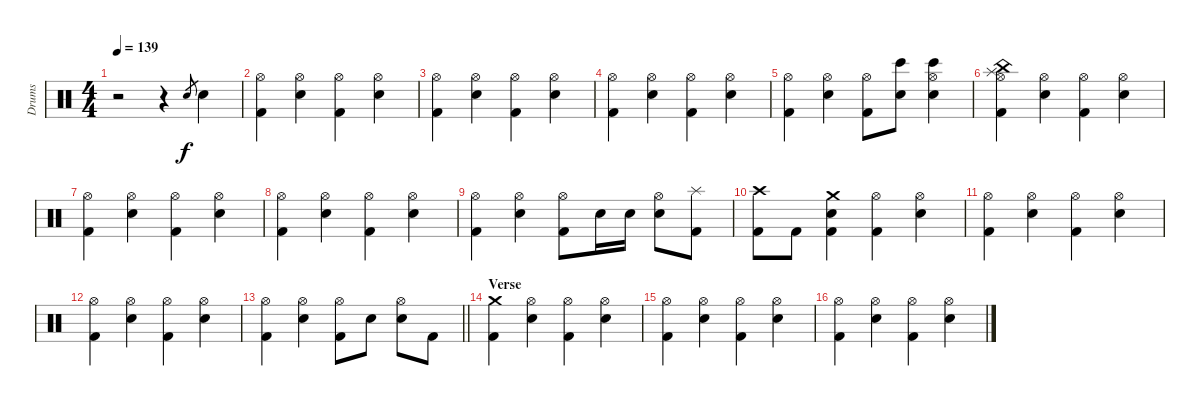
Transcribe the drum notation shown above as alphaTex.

\track ("Drums" "Drums") {instrument percussion}
\staff {score}
\articulation defaults
\ts (4 4)
\tempo 139
\clef neutral
\ks c
r.2{dy f} r.4 "Electric Snare (hit)".8{gr} "Electric Snare (hit)".4 |
("Hi-Hat (open)" "Kick (hit) 2").4 ("Hi-Hat (open)" "Electric Snare (hit)").4 ("Hi-Hat (open)" "Kick (hit) 2").4 ("Hi-Hat (open)" "Electric Snare (hit)").4 |
("Hi-Hat (open)" "Kick (hit) 2").4 ("Hi-Hat (open)" "Electric Snare (hit)").4 ("Hi-Hat (open)" "Kick (hit) 2").4 ("Hi-Hat (open)" "Electric Snare (hit)").4 |
("Hi-Hat (open)" "Kick (hit) 2").4 ("Hi-Hat (open)" "Electric Snare (hit)").4 ("Hi-Hat (open)" "Kick (hit) 2").4 ("Hi-Hat (open)" "Electric Snare (hit)").4 |
("Hi-Hat (open)" "Kick (hit) 2").4 ("Hi-Hat (open)" "Electric Snare (hit)").4 ("Hi-Hat (open)" "Kick (hit) 2").8 ("Bongo High (hit)" "Electric Snare (hit)").8 ("Hi-Hat (open)" "Bongo High (hit)" "Electric Snare (hit)").4 |
("Hi-Hat (open)" "Splash (hit)" "China (hit)" "Kick (hit) 2").4 ("Hi-Hat (open)" "Electric Snare (hit)").4 ("Hi-Hat (open)" "Kick (hit) 2").4 ("Hi-Hat (open)" "Electric Snare (hit)").4 |
("Hi-Hat (open)" "Kick (hit) 2").4 ("Hi-Hat (open)" "Electric Snare (hit)").4 ("Hi-Hat (open)" "Kick (hit) 2").4 ("Hi-Hat (open)" "Electric Snare (hit)").4 |
("Hi-Hat (open)" "Kick (hit) 2").4 ("Hi-Hat (open)" "Electric Snare (hit)").4 ("Hi-Hat (open)" "Kick (hit) 2").4 ("Hi-Hat (open)" "Electric Snare (hit)").4 |
("Hi-Hat (open)" "Kick (hit) 2").4 ("Hi-Hat (open)" "Electric Snare (hit)").4 ("Hi-Hat (open)" "Kick (hit) 2").8 "Electric Snare (hit)".16 "Electric Snare (hit)".16 ("Hi-Hat (open)" "Electric Snare (hit)").8 ("Splash (hit)" "Kick (hit) 2").8 |
("Crash high (hit)" "Kick (hit) 2").8 "Kick (hit) 2".8 ("Crash medium (hit)" "Electric Snare (hit)" "Kick (hit) 2").4 ("Hi-Hat (open)" "Kick (hit) 2").4 ("Hi-Hat (open)" "Electric Snare (hit)").4 |
("Hi-Hat (open)" "Kick (hit) 2").4 ("Hi-Hat (open)" "Electric Snare (hit)").4 ("Hi-Hat (open)" "Kick (hit) 2").4 ("Hi-Hat (open)" "Electric Snare (hit)").4 |
("Hi-Hat (open)" "Kick (hit) 2").4 ("Hi-Hat (open)" "Electric Snare (hit)").4 ("Hi-Hat (open)" "Kick (hit) 2").4 ("Hi-Hat (open)" "Electric Snare (hit)").4 |
\barLineRight lightlight
("Hi-Hat (open)" "Kick (hit) 2").4 ("Hi-Hat (open)" "Electric Snare (hit)").4 ("Hi-Hat (open)" "Kick (hit) 2").8 "Electric Snare (hit)".8 ("Hi-Hat (open)" "Electric Snare (hit)").8 "Kick (hit) 2".8 |
\section ("" "Verse")
("Crash medium (hit)" "Kick (hit) 2").4 ("Hi-Hat (open)" "Electric Snare (hit)").4 ("Hi-Hat (open)" "Kick (hit) 2").4 ("Hi-Hat (open)" "Electric Snare (hit)").4 |
("Hi-Hat (open)" "Kick (hit) 2").4 ("Hi-Hat (open)" "Electric Snare (hit)").4 ("Hi-Hat (open)" "Kick (hit) 2").4 ("Hi-Hat (open)" "Electric Snare (hit)").4 |
("Hi-Hat (open)" "Kick (hit) 2").4 ("Hi-Hat (open)" "Electric Snare (hit)").4 ("Hi-Hat (open)" "Kick (hit) 2").4 ("Hi-Hat (open)" "Electric Snare (hit)").4
